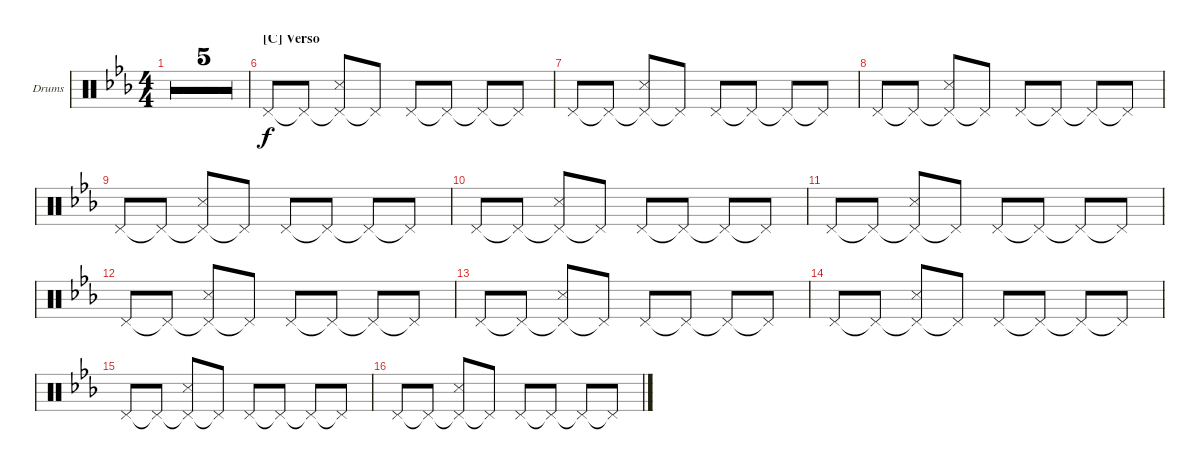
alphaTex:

\defaultSystemsLayout 4
\bracketExtendMode groupsimilarinstruments
\firstSystemTrackNameOrientation horizontal
\otherSystemsTrackNameOrientation horizontal
\track ("Drum" "Drums") {multiBarRest instrument percussion}
\staff {score}
\articulation defaults
\ts (4 4)
\tempo 65
\clef neutral
\ks cminor
|
|
|
|
|
\section ("C" "Verso")
"Pedal Hi-Hat (hit)".8 "Pedal Hi-Hat (hit)"{t}.8 ("Pedal Hi-Hat (hit)"{t} "Snare (side stick) 3").8 "Pedal Hi-Hat (hit)"{t}.8 "Pedal Hi-Hat (hit)".8 "Pedal Hi-Hat (hit)"{t}.8 "Pedal Hi-Hat (hit)"{t}.8 "Pedal Hi-Hat (hit)"{t}.8 |
"Pedal Hi-Hat (hit)".8 "Pedal Hi-Hat (hit)"{t}.8 ("Pedal Hi-Hat (hit)"{t} "Snare (side stick) 3").8 "Pedal Hi-Hat (hit)"{t}.8 "Pedal Hi-Hat (hit)".8 "Pedal Hi-Hat (hit)"{t}.8 "Pedal Hi-Hat (hit)"{t}.8 "Pedal Hi-Hat (hit)"{t}.8 |
"Pedal Hi-Hat (hit)".8 "Pedal Hi-Hat (hit)"{t}.8 ("Pedal Hi-Hat (hit)"{t} "Snare (side stick) 3").8 "Pedal Hi-Hat (hit)"{t}.8 "Pedal Hi-Hat (hit)".8 "Pedal Hi-Hat (hit)"{t}.8 "Pedal Hi-Hat (hit)"{t}.8 "Pedal Hi-Hat (hit)"{t}.8 |
"Pedal Hi-Hat (hit)".8 "Pedal Hi-Hat (hit)"{t}.8 ("Pedal Hi-Hat (hit)"{t} "Snare (side stick) 3").8 "Pedal Hi-Hat (hit)"{t}.8 "Pedal Hi-Hat (hit)".8 "Pedal Hi-Hat (hit)"{t}.8 "Pedal Hi-Hat (hit)"{t}.8 "Pedal Hi-Hat (hit)"{t}.8 |
"Pedal Hi-Hat (hit)".8 "Pedal Hi-Hat (hit)"{t}.8 ("Pedal Hi-Hat (hit)"{t} "Snare (side stick) 3").8 "Pedal Hi-Hat (hit)"{t}.8 "Pedal Hi-Hat (hit)".8 "Pedal Hi-Hat (hit)"{t}.8 "Pedal Hi-Hat (hit)"{t}.8 "Pedal Hi-Hat (hit)"{t}.8 |
"Pedal Hi-Hat (hit)".8 "Pedal Hi-Hat (hit)"{t}.8 ("Pedal Hi-Hat (hit)"{t} "Snare (side stick) 3").8 "Pedal Hi-Hat (hit)"{t}.8 "Pedal Hi-Hat (hit)".8 "Pedal Hi-Hat (hit)"{t}.8 "Pedal Hi-Hat (hit)"{t}.8 "Pedal Hi-Hat (hit)"{t}.8 |
"Pedal Hi-Hat (hit)".8 "Pedal Hi-Hat (hit)"{t}.8 ("Pedal Hi-Hat (hit)"{t} "Snare (side stick) 3").8 "Pedal Hi-Hat (hit)"{t}.8 "Pedal Hi-Hat (hit)".8 "Pedal Hi-Hat (hit)"{t}.8 "Pedal Hi-Hat (hit)"{t}.8 "Pedal Hi-Hat (hit)"{t}.8 |
"Pedal Hi-Hat (hit)".8 "Pedal Hi-Hat (hit)"{t}.8 ("Pedal Hi-Hat (hit)"{t} "Snare (side stick) 3").8 "Pedal Hi-Hat (hit)"{t}.8 "Pedal Hi-Hat (hit)".8 "Pedal Hi-Hat (hit)"{t}.8 "Pedal Hi-Hat (hit)"{t}.8 "Pedal Hi-Hat (hit)"{t}.8 |
"Pedal Hi-Hat (hit)".8 "Pedal Hi-Hat (hit)"{t}.8 ("Pedal Hi-Hat (hit)"{t} "Snare (side stick) 3").8 "Pedal Hi-Hat (hit)"{t}.8 "Pedal Hi-Hat (hit)".8 "Pedal Hi-Hat (hit)"{t}.8 "Pedal Hi-Hat (hit)"{t}.8 "Pedal Hi-Hat (hit)"{t}.8 |
"Pedal Hi-Hat (hit)".8 "Pedal Hi-Hat (hit)"{t}.8 ("Pedal Hi-Hat (hit)"{t} "Snare (side stick) 3").8 "Pedal Hi-Hat (hit)"{t}.8 "Pedal Hi-Hat (hit)".8 "Pedal Hi-Hat (hit)"{t}.8 "Pedal Hi-Hat (hit)"{t}.8 "Pedal Hi-Hat (hit)"{t}.8 |
"Pedal Hi-Hat (hit)".8 "Pedal Hi-Hat (hit)"{t}.8 ("Pedal Hi-Hat (hit)"{t} "Snare (side stick) 3").8 "Pedal Hi-Hat (hit)"{t}.8 "Pedal Hi-Hat (hit)".8 "Pedal Hi-Hat (hit)"{t}.8 "Pedal Hi-Hat (hit)"{t}.8 "Pedal Hi-Hat (hit)"{t}.8
